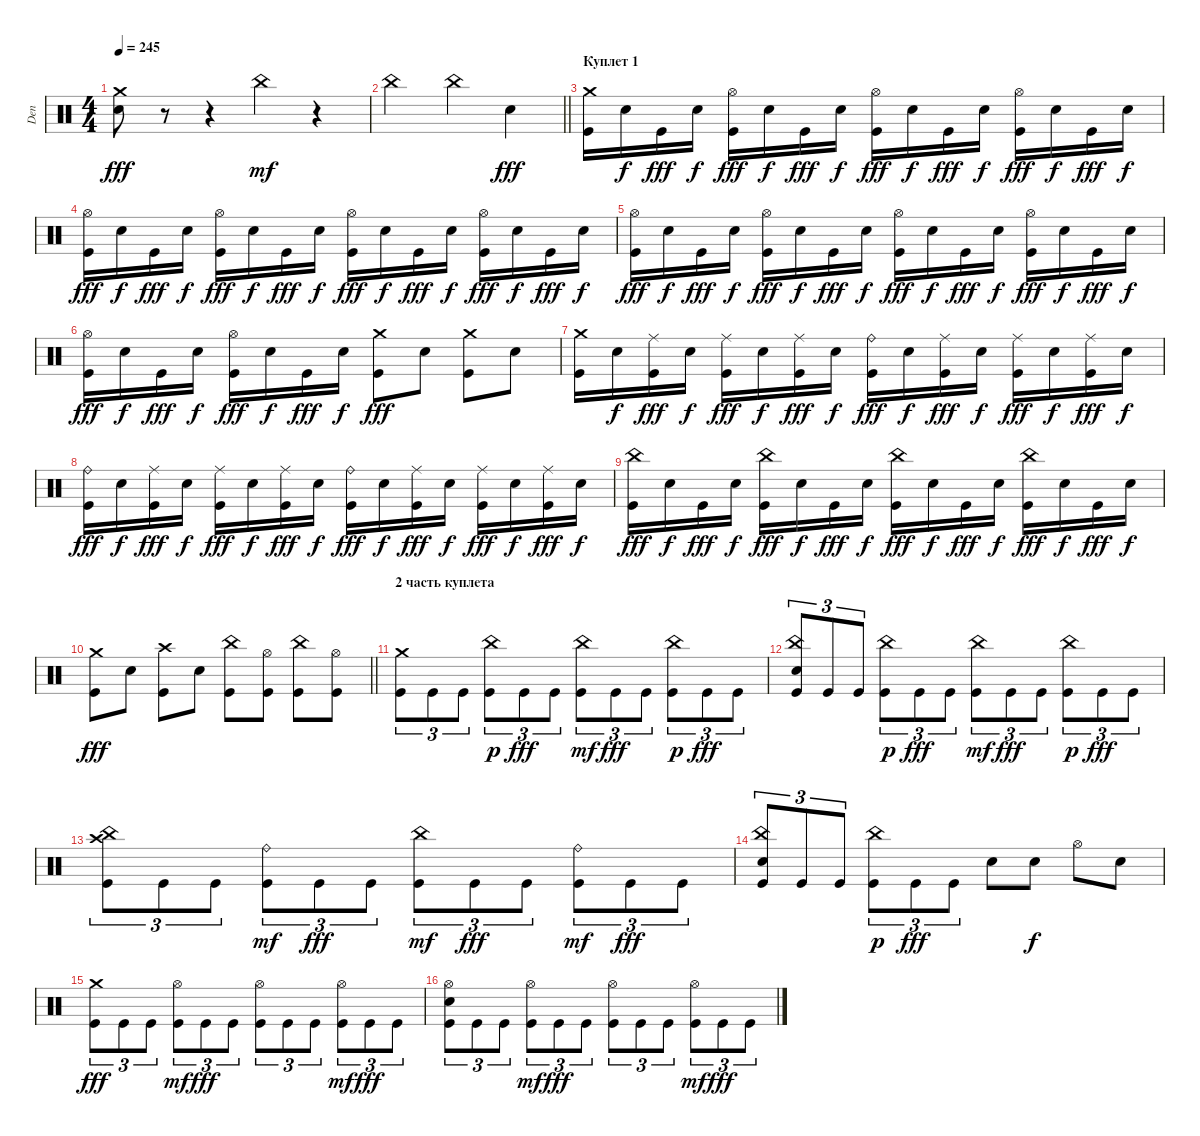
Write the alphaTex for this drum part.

\track ("Den" "Den") {instrument percussion}
\staff {score}
\articulation defaults
\ts (4 4)
\tempo 245
\clef neutral
\ks c
("Crash medium (hit)" "Electric Snare (hit)").8{dy fff} r.8 r.4 "China (hit)".4{dy mf} r.4 |
\barLineRight lightlight "China (hit)".2 "China (hit)".4 "Electric Snare (hit)".4{dy fff}
|
\section ("" "Куплет 1")
("Crash medium (hit)" "Kick (hit)").16 "Electric Snare (hit)".16{dy f} "Kick (hit)".16{dy fff} "Electric Snare (hit)".16{dy f} ("Kick (hit)" "Hi-Hat (open)").16{dy fff} "Electric Snare (hit)".16{dy f} "Kick (hit)".16{dy fff} "Electric Snare (hit)".16{dy f} ("Kick (hit)" "Hi-Hat (open)").16{dy fff} "Electric Snare (hit)".16{dy f} "Kick (hit)".16{dy fff} "Electric Snare (hit)".16{dy f} ("Kick (hit)" "Hi-Hat (open)").16{dy fff} "Electric Snare (hit)".16{dy f} "Kick (hit)".16{dy fff} "Electric Snare (hit)".16{dy f} |
("Kick (hit)" "Hi-Hat (open)").16{dy fff} "Electric Snare (hit)".16{dy f} "Kick (hit)".16{dy fff} "Electric Snare (hit)".16{dy f} ("Kick (hit)" "Hi-Hat (open)").16{dy fff} "Electric Snare (hit)".16{dy f} "Kick (hit)".16{dy fff} "Electric Snare (hit)".16{dy f} ("Kick (hit)" "Hi-Hat (open)").16{dy fff} "Electric Snare (hit)".16{dy f} "Kick (hit)".16{dy fff} "Electric Snare (hit)".16{dy f} ("Kick (hit)" "Hi-Hat (open)").16{dy fff} "Electric Snare (hit)".16{dy f} "Kick (hit)".16{dy fff} "Electric Snare (hit)".16{dy f} |
("Kick (hit)" "Hi-Hat (open)").16{dy fff} "Electric Snare (hit)".16{dy f} "Kick (hit)".16{dy fff} "Electric Snare (hit)".16{dy f} ("Kick (hit)" "Hi-Hat (open)").16{dy fff} "Electric Snare (hit)".16{dy f} "Kick (hit)".16{dy fff} "Electric Snare (hit)".16{dy f} ("Kick (hit)" "Hi-Hat (open)").16{dy fff} "Electric Snare (hit)".16{dy f} "Kick (hit)".16{dy fff} "Electric Snare (hit)".16{dy f} ("Kick (hit)" "Hi-Hat (open)").16{dy fff} "Electric Snare (hit)".16{dy f} "Kick (hit)".16{dy fff} "Electric Snare (hit)".16{dy f} |
("Kick (hit)" "Hi-Hat (open)").16{dy fff} "Electric Snare (hit)".16{dy f} "Kick (hit)".16{dy fff} "Electric Snare (hit)".16{dy f} ("Kick (hit)" "Hi-Hat (open)").16{dy fff} "Electric Snare (hit)".16{dy f} "Kick (hit)".16{dy fff} "Electric Snare (hit)".16{dy f} ("Crash medium (hit)" "Kick (hit)").8{dy fff} "Electric Snare (hit)".8 ("Crash medium (hit)" "Kick (hit)").8 "Electric Snare (hit)".8 |
("Crash medium (hit)" "Kick (hit)").16 "Electric Snare (hit)".16{dy f} ("Kick (hit)" "Ride (middle)").16{dy fff} "Electric Snare (hit)".16{dy f} ("Kick (hit)" "Ride (middle)").16{dy fff} "Electric Snare (hit)".16{dy f} ("Kick (hit)" "Ride (middle)").16{dy fff} "Electric Snare (hit)".16{dy f} ("Kick (hit)" "Ride (bell)").16{dy fff} "Electric Snare (hit)".16{dy f} ("Kick (hit)" "Ride (middle)").16{dy fff} "Electric Snare (hit)".16{dy f} ("Kick (hit)" "Ride (middle)").16{dy fff} "Electric Snare (hit)".16{dy f} ("Kick (hit)" "Ride (middle)").16{dy fff} "Electric Snare (hit)".16{dy f} |
("Kick (hit)" "Ride (bell)").16{dy fff} "Electric Snare (hit)".16{dy f} ("Kick (hit)" "Ride (middle)").16{dy fff} "Electric Snare (hit)".16{dy f} ("Kick (hit)" "Ride (middle)").16{dy fff} "Electric Snare (hit)".16{dy f} ("Kick (hit)" "Ride (middle)").16{dy fff} "Electric Snare (hit)".16{dy f} ("Kick (hit)" "Ride (bell)").16{dy fff} "Electric Snare (hit)".16{dy f} ("Kick (hit)" "Ride (middle)").16{dy fff} "Electric Snare (hit)".16{dy f} ("Kick (hit)" "Ride (middle)").16{dy fff} "Electric Snare (hit)".16{dy f} ("Kick (hit)" "Ride (middle)").16{dy fff} "Electric Snare (hit)".16{dy f} |
("Kick (hit)" "China (hit)").16{dy fff} "Electric Snare (hit)".16{dy f} "Kick (hit)".16{dy fff} "Electric Snare (hit)".16{dy f} ("Kick (hit)" "China (hit)").16{dy fff} "Electric Snare (hit)".16{dy f} "Kick (hit)".16{dy fff} "Electric Snare (hit)".16{dy f} ("Kick (hit)" "China (hit)").16{dy fff} "Electric Snare (hit)".16{dy f} "Kick (hit)".16{dy fff} "Electric Snare (hit)".16{dy f} ("Kick (hit)" "China (hit)").16{dy fff} "Electric Snare (hit)".16{dy f} "Kick (hit)".16{dy fff} "Electric Snare (hit)".16{dy f} |
\barLineRight lightlight
("Crash medium (hit)" "Kick (hit)").8{dy fff} "Electric Snare (hit)".8 ("Crash high (hit)" "Kick (hit)").8 "Electric Snare (hit)".8 ("Kick (hit)" "China (hit)").8 ("Kick (hit)" "Hi-Hat (open)").8 ("Kick (hit)" "China (hit)").8 ("Kick (hit)" "Hi-Hat (open)").8 |
\section ("" "2 часть куплета")
("Crash medium (hit)" "Kick (hit)").8{tu (3 2)} "Kick (hit)".8{tu (3 2)} "Kick (hit)".8{tu (3 2)} ("Kick (hit)" "China (hit)").8{tu (3 2) dy p} "Kick (hit)".8{tu (3 2) dy fff} "Kick (hit)".8{tu (3 2)} ("Kick (hit)" "China (hit)").8{tu (3 2) dy mf} "Kick (hit)".8{tu (3 2) dy fff} "Kick (hit)".8{tu (3 2)} ("Kick (hit)" "China (hit)").8{tu (3 2) dy p} "Kick (hit)".8{tu (3 2) dy fff} "Kick (hit)".8{tu (3 2)} |
("Kick (hit)" "China (hit)" "Electric Snare (hit)").8{tu (3 2)} "Kick (hit)".8{tu (3 2)} "Kick (hit)".8{tu (3 2)} ("Kick (hit)" "China (hit)").8{tu (3 2) dy p} "Kick (hit)".8{tu (3 2) dy fff} "Kick (hit)".8{tu (3 2)} ("Kick (hit)" "China (hit)").8{tu (3 2) dy mf} "Kick (hit)".8{tu (3 2) dy fff} "Kick (hit)".8{tu (3 2)} ("Kick (hit)" "China (hit)").8{tu (3 2) dy p} "Kick (hit)".8{tu (3 2) dy fff} "Kick (hit)".8{tu (3 2)} |
("Kick (hit)" "China (hit)" "Crash high (hit)").8{tu (3 2)} "Kick (hit)".8{tu (3 2)} "Kick (hit)".8{tu (3 2)} ("Kick (hit)" "Ride (bell)").8{tu (3 2) dy mf} "Kick (hit)".8{tu (3 2) dy fff} "Kick (hit)".8{tu (3 2)} ("Kick (hit)" "China (hit)").8{tu (3 2) dy mf} "Kick (hit)".8{tu (3 2) dy fff} "Kick (hit)".8{tu (3 2)} ("Kick (hit)" "Ride (bell)").8{tu (3 2) dy mf} "Kick (hit)".8{tu (3 2) dy fff} "Kick (hit)".8{tu (3 2)} |
("Kick (hit)" "China (hit)" "Electric Snare (hit)").8{tu (3 2)} "Kick (hit)".8{tu (3 2)} "Kick (hit)".8{tu (3 2)} ("Kick (hit)" "China (hit)").8{tu (3 2) dy p} "Kick (hit)".8{tu (3 2) dy fff} "Kick (hit)".8{tu (3 2)} "Electric Snare (hit)".8 "Electric Snare (hit)".8{dy f} "Hi-Hat (open)".8 "Electric Snare (hit)".8 |
("Crash medium (hit)" "Kick (hit)").8{tu (3 2) dy fff} "Kick (hit)".8{tu (3 2)} "Kick (hit)".8{tu (3 2)} ("Kick (hit)" "Hi-Hat (open)").8{tu (3 2) dy mf} "Kick (hit)".8{tu (3 2) dy fff} "Kick (hit)".8{tu (3 2)} ("Kick (hit)" "Hi-Hat (open)").8{tu (3 2)} "Kick (hit)".8{tu (3 2)} "Kick (hit)".8{tu (3 2)} ("Kick (hit)" "Hi-Hat (open)").8{tu (3 2) dy mf} "Kick (hit)".8{tu (3 2) dy fff} "Kick (hit)".8{tu (3 2)} |
("Kick (hit)" "Hi-Hat (open)" "Electric Snare (hit)").8{tu (3 2)} "Kick (hit)".8{tu (3 2)} "Kick (hit)".8{tu (3 2)} ("Kick (hit)" "Hi-Hat (open)").8{tu (3 2) dy mf} "Kick (hit)".8{tu (3 2) dy fff} "Kick (hit)".8{tu (3 2)} ("Kick (hit)" "Hi-Hat (open)").8{tu (3 2)} "Kick (hit)".8{tu (3 2)} "Kick (hit)".8{tu (3 2)} ("Kick (hit)" "Hi-Hat (open)").8{tu (3 2) dy mf} "Kick (hit)".8{tu (3 2) dy fff} "Kick (hit)".8{tu (3 2)}
